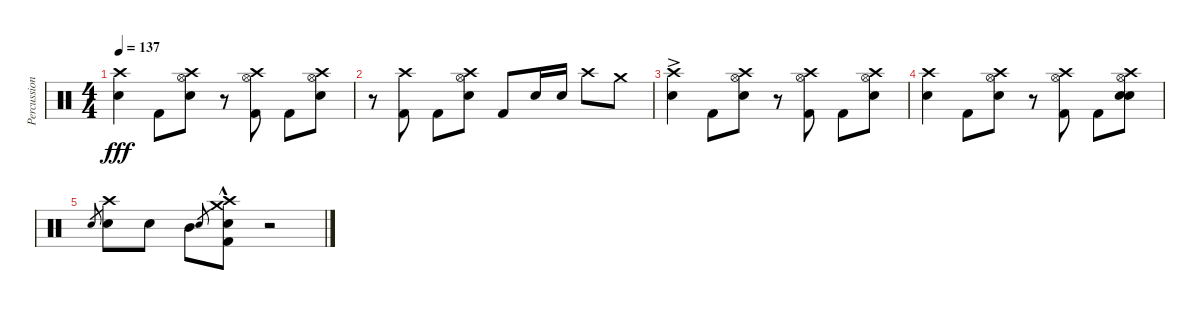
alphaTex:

\track ("Percussion" "Percussion") {solo instrument percussion}
\staff {score}
\articulation defaults
\ts (4 4)
\tempo 137
\clef neutral
\ks c
("Crash high (hit)" "Electric Snare (hit)").4{dy fff} "Kick (hit) 2".8 ("Electric Snare (hit)" "Hi-Hat (open)" "Crash high (hit)").8 r.8 ("Kick (hit) 2" "Hi-Hat (open)" "Crash high (hit)").8 "Kick (hit) 2".8 ("Electric Snare (hit)" "Hi-Hat (open)" "Crash high (hit)").8 |
r.8 ("Kick (hit) 2" "Crash high (hit)").8 "Kick (hit) 2".8 ("Electric Snare (hit)" "Hi-Hat (open)" "Crash high (hit)").8 "Kick (hit) 2".8 "Electric Snare (hit)".16 "Electric Snare (hit)".16 "Crash high (hit)".8 "Crash medium (hit)".8 |
("Crash high (hit)"{ac} "Electric Snare (hit)"{ac}).4 "Kick (hit) 2".8 ("Electric Snare (hit)" "Hi-Hat (open)" "Crash high (hit)").8 r.8 ("Kick (hit) 2" "Hi-Hat (open)" "Crash high (hit)").8 "Kick (hit) 2".8 ("Electric Snare (hit)" "Hi-Hat (open)" "Crash high (hit)").8 |
("Crash high (hit)" "Electric Snare (hit)").4 "Kick (hit) 2".8 ("Electric Snare (hit)" "Hi-Hat (open)" "Crash high (hit)").8 r.8 ("Kick (hit) 2" "Hi-Hat (open)" "Crash high (hit)").8 "Kick (hit) 2".8 ("Electric Snare (hit)" "Hi-Hat (open)" "Crash high (hit)" "Electric Snare (hit)").8 |
"Electric Snare (hit)".8{gr} ("Electric Snare (hit)" "Crash high (hit)").8 "Snare (hit) 2".8 "Mid Tom (hit)".8 "Electric Snare (hit)".8{gr} ("Electric Snare (hit)"{hac} "Crash high (hit)"{hac} "Kick (hit) 2"{hac} "Crash medium (hit)"{hac}).8 r.2
